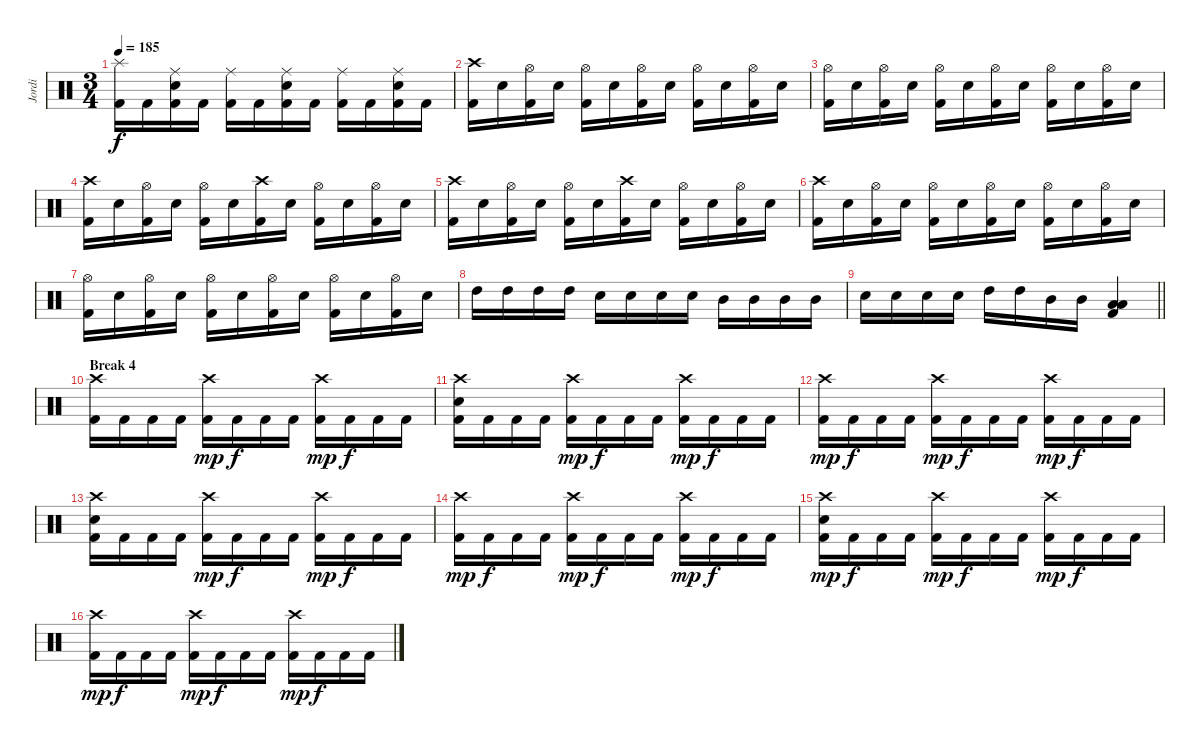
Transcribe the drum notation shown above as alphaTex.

\track ("Jordi" "Jordi") {instrument percussion}
\staff {score}
\articulation defaults
\ts (3 4)
\tempo 185
\clef neutral
\ks c
("Splash (hit)" "Kick (hit) 2").16{dy f} "Kick (hit) 2".16 ("Ride (middle)" "Snare (hit) 2" "Kick (hit) 2").16 "Kick (hit) 2".16 ("Ride (middle)" "Kick (hit) 2").16 "Kick (hit) 2".16 ("Ride (middle)" "Snare (hit) 2" "Kick (hit) 2").16 "Kick (hit) 2".16 ("Ride (middle)" "Kick (hit) 2").16 "Kick (hit) 2".16 ("Ride (middle)" "Snare (hit) 2" "Kick (hit) 2").16 "Kick (hit) 2".16 |
("Crash high (hit)" "Kick (hit) 2").16 "Snare (hit) 2".16 ("Hi-Hat (open)" "Kick (hit) 2").16 "Snare (hit) 2".16 ("Hi-Hat (open)" "Kick (hit) 2").16 "Snare (hit) 2".16 ("Hi-Hat (open)" "Kick (hit) 2").16 "Snare (hit) 2".16 ("Hi-Hat (open)" "Kick (hit) 2").16 "Snare (hit) 2".16 ("Hi-Hat (open)" "Kick (hit) 2").16 "Snare (hit) 2".16 |
("Hi-Hat (open)" "Kick (hit) 2").16 "Snare (hit) 2".16 ("Hi-Hat (open)" "Kick (hit) 2").16 "Snare (hit) 2".16 ("Hi-Hat (open)" "Kick (hit) 2").16 "Snare (hit) 2".16 ("Hi-Hat (open)" "Kick (hit) 2").16 "Snare (hit) 2".16 ("Hi-Hat (open)" "Kick (hit) 2").16 "Snare (hit) 2".16 ("Hi-Hat (open)" "Kick (hit) 2").16 "Snare (hit) 2".16 |
("Crash high (hit)" "Kick (hit) 2").16 "Snare (hit) 2".16 ("Hi-Hat (open)" "Kick (hit) 2").16 "Snare (hit) 2".16 ("Hi-Hat (open)" "Kick (hit) 2").16 "Snare (hit) 2".16 ("Crash high (hit)" "Kick (hit) 2").16 "Snare (hit) 2".16 ("Hi-Hat (open)" "Kick (hit) 2").16 "Snare (hit) 2".16 ("Hi-Hat (open)" "Kick (hit) 2").16 "Snare (hit) 2".16 |
("Crash high (hit)" "Kick (hit) 2").16 "Snare (hit) 2".16 ("Hi-Hat (open)" "Kick (hit) 2").16 "Snare (hit) 2".16 ("Hi-Hat (open)" "Kick (hit) 2").16 "Snare (hit) 2".16 ("Crash high (hit)" "Kick (hit) 2").16 "Snare (hit) 2".16 ("Hi-Hat (open)" "Kick (hit) 2").16 "Snare (hit) 2".16 ("Hi-Hat (open)" "Kick (hit) 2").16 "Snare (hit) 2".16 |
("Crash high (hit)" "Kick (hit) 2").16 "Snare (hit) 2".16 ("Hi-Hat (open)" "Kick (hit) 2").16 "Snare (hit) 2".16 ("Hi-Hat (open)" "Kick (hit) 2").16 "Snare (hit) 2".16 ("Hi-Hat (open)" "Kick (hit) 2").16 "Snare (hit) 2".16 ("Hi-Hat (open)" "Kick (hit) 2").16 "Snare (hit) 2".16 ("Hi-Hat (open)" "Kick (hit) 2").16 "Snare (hit) 2".16 |
("Hi-Hat (open)" "Kick (hit) 2").16 "Snare (hit) 2".16 ("Hi-Hat (open)" "Kick (hit) 2").16 "Snare (hit) 2".16 ("Hi-Hat (open)" "Kick (hit) 2").16 "Snare (hit) 2".16 ("Hi-Hat (open)" "Kick (hit) 2").16 "Snare (hit) 2".16 ("Hi-Hat (open)" "Kick (hit) 2").16 "Snare (hit) 2".16 ("Hi-Hat (open)" "Kick (hit) 2").16 "Snare (hit) 2".16 |
"High Tom (hit)".16 "High Tom (hit)".16 "High Tom (hit)".16 "High Tom (hit)".16 "Snare (hit) 2".16 "Snare (hit) 2".16 "Snare (hit) 2".16 "Snare (hit) 2".16 "Mid Tom (hit)".16 "Mid Tom (hit)".16 "Mid Tom (hit)".16 "Mid Tom (hit)".16 |
\barLineRight lightlight "Snare (hit) 2".16 "Snare (hit) 2".16 "Snare (hit) 2".16 "Snare (hit) 2".16 "High Tom (hit)".16 "High Tom (hit)".16 "Mid Tom (hit)".16 "Mid Tom (hit)".16
("Low Tom (hit)" "Low Tom (hit)" "Kick (hit) 2").4 |
\section ("" "Break 4")
("Crash high (hit)" "Kick (hit) 2").16 "Kick (hit) 2".16 "Kick (hit) 2".16 "Kick (hit) 2".16 ("Crash high (hit)" "Kick (hit) 2").16{dy mp} "Kick (hit) 2".16{dy f} "Kick (hit) 2".16 "Kick (hit) 2".16 ("Crash high (hit)" "Kick (hit) 2").16{dy mp} "Kick (hit) 2".16{dy f} "Kick (hit) 2".16 "Kick (hit) 2".16 |
("Crash high (hit)" "Snare (hit) 2" "Kick (hit) 2").16 "Kick (hit) 2".16 "Kick (hit) 2".16 "Kick (hit) 2".16 ("Crash high (hit)" "Kick (hit) 2").16{dy mp} "Kick (hit) 2".16{dy f} "Kick (hit) 2".16 "Kick (hit) 2".16 ("Crash high (hit)" "Kick (hit) 2").16{dy mp} "Kick (hit) 2".16{dy f} "Kick (hit) 2".16 "Kick (hit) 2".16 |
("Crash high (hit)" "Kick (hit) 2").16{dy mp} "Kick (hit) 2".16{dy f} "Kick (hit) 2".16 "Kick (hit) 2".16 ("Crash high (hit)" "Kick (hit) 2").16{dy mp} "Kick (hit) 2".16{dy f} "Kick (hit) 2".16 "Kick (hit) 2".16 ("Crash high (hit)" "Kick (hit) 2").16{dy mp} "Kick (hit) 2".16{dy f} "Kick (hit) 2".16 "Kick (hit) 2".16 |
("Crash high (hit)" "Snare (hit) 2" "Kick (hit) 2").16 "Kick (hit) 2".16 "Kick (hit) 2".16 "Kick (hit) 2".16 ("Crash high (hit)" "Kick (hit) 2").16{dy mp} "Kick (hit) 2".16{dy f} "Kick (hit) 2".16 "Kick (hit) 2".16 ("Crash high (hit)" "Kick (hit) 2").16{dy mp} "Kick (hit) 2".16{dy f} "Kick (hit) 2".16 "Kick (hit) 2".16 |
("Crash high (hit)" "Kick (hit) 2").16{dy mp} "Kick (hit) 2".16{dy f} "Kick (hit) 2".16 "Kick (hit) 2".16 ("Crash high (hit)" "Kick (hit) 2").16{dy mp} "Kick (hit) 2".16{dy f} "Kick (hit) 2".16 "Kick (hit) 2".16 ("Crash high (hit)" "Kick (hit) 2").16{dy mp} "Kick (hit) 2".16{dy f} "Kick (hit) 2".16 "Kick (hit) 2".16 |
("Crash high (hit)" "Snare (hit) 2" "Kick (hit) 2").16{dy mp} "Kick (hit) 2".16{dy f} "Kick (hit) 2".16 "Kick (hit) 2".16 ("Crash high (hit)" "Kick (hit) 2").16{dy mp} "Kick (hit) 2".16{dy f} "Kick (hit) 2".16 "Kick (hit) 2".16 ("Crash high (hit)" "Kick (hit) 2").16{dy mp} "Kick (hit) 2".16{dy f} "Kick (hit) 2".16 "Kick (hit) 2".16 |
("Crash high (hit)" "Kick (hit) 2").16{dy mp} "Kick (hit) 2".16{dy f} "Kick (hit) 2".16 "Kick (hit) 2".16 ("Crash high (hit)" "Kick (hit) 2").16{dy mp} "Kick (hit) 2".16{dy f} "Kick (hit) 2".16 "Kick (hit) 2".16 ("Crash high (hit)" "Kick (hit) 2").16{dy mp} "Kick (hit) 2".16{dy f} "Kick (hit) 2".16 "Kick (hit) 2".16
